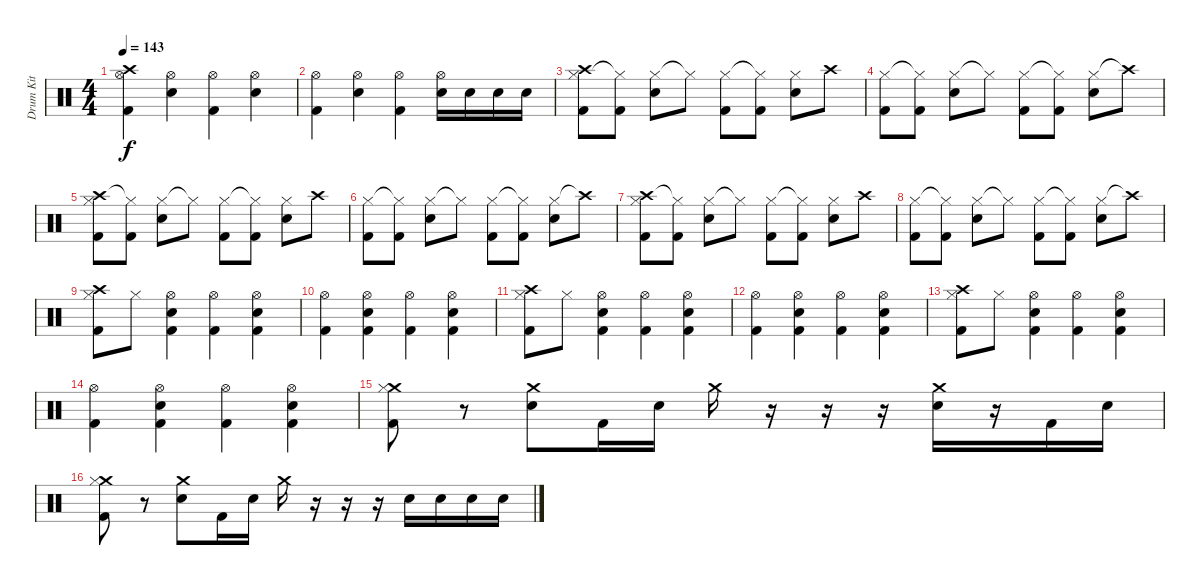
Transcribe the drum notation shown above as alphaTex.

\track ("Drum Kit" "Drum Kit") {instrument percussion}
\staff {score}
\articulation defaults
\ts (4 4)
\tempo 143
\clef neutral
\ks c
("Hi-Hat (open)" "Crash high (hit)" "Kick (hit) 2").4{dy f} ("Hi-Hat (open)" "Snare (hit) 2").4 ("Hi-Hat (open)" "Kick (hit) 2").4 ("Hi-Hat (open)" "Snare (hit) 2").4 |
("Hi-Hat (open)" "Kick (hit) 2").4 ("Hi-Hat (open)" "Snare (hit) 2").4 ("Hi-Hat (open)" "Kick (hit) 2").4 ("Hi-Hat (open)" "Snare (hit) 2").16 "Snare (hit) 2".16 "Snare (hit) 2".16 "Snare (hit) 2".16 |
("Hi-Hat (closed)" "Kick (hit) 2" "Crash high (hit)").8 ("Hi-Hat (closed)"{t} "Kick (hit) 2").8 ("Hi-Hat (closed)" "Snare (hit) 2").8 "Hi-Hat (closed)"{t}.8 ("Hi-Hat (closed)" "Kick (hit) 2").8 ("Hi-Hat (closed)"{t} "Kick (hit) 2").8 ("Hi-Hat (closed)" "Snare (hit) 2").8 "Crash high (hit)".8 |
("Hi-Hat (closed)" "Kick (hit) 2").8 ("Hi-Hat (closed)"{t} "Kick (hit) 2").8 ("Hi-Hat (closed)" "Snare (hit) 2").8 "Hi-Hat (closed)"{t}.8 ("Hi-Hat (closed)" "Kick (hit) 2").8 ("Hi-Hat (closed)"{t} "Kick (hit) 2").8 ("Hi-Hat (closed)" "Snare (hit) 2").8 "Crash high (hit)"{t}.8 |
("Crash high (hit)" "Hi-Hat (closed)" "Kick (hit) 2").8 ("Hi-Hat (closed)"{t} "Kick (hit) 2").8 ("Hi-Hat (closed)" "Snare (hit) 2").8 "Hi-Hat (closed)"{t}.8 ("Hi-Hat (closed)" "Kick (hit) 2").8 ("Hi-Hat (closed)"{t} "Kick (hit) 2").8 ("Hi-Hat (closed)" "Snare (hit) 2").8 "Crash high (hit)".8 |
("Hi-Hat (closed)" "Kick (hit) 2").8 ("Hi-Hat (closed)"{t} "Kick (hit) 2").8 ("Hi-Hat (closed)" "Snare (hit) 2").8 "Hi-Hat (closed)"{t}.8 ("Hi-Hat (closed)" "Kick (hit) 2").8 ("Hi-Hat (closed)"{t} "Kick (hit) 2").8 ("Hi-Hat (closed)" "Snare (hit) 2").8 "Crash high (hit)"{t}.8 |
("Crash high (hit)" "Hi-Hat (closed)" "Kick (hit) 2").8 ("Hi-Hat (closed)"{t} "Kick (hit) 2").8 ("Hi-Hat (closed)" "Snare (hit) 2").8 "Hi-Hat (closed)"{t}.8 ("Hi-Hat (closed)" "Kick (hit) 2").8 ("Hi-Hat (closed)"{t} "Kick (hit) 2").8 ("Hi-Hat (closed)" "Snare (hit) 2").8 "Crash high (hit)".8 |
("Hi-Hat (closed)" "Kick (hit) 2").8 ("Hi-Hat (closed)"{t} "Kick (hit) 2").8 ("Hi-Hat (closed)" "Snare (hit) 2").8 "Hi-Hat (closed)"{t}.8 ("Hi-Hat (closed)" "Kick (hit) 2").8 ("Hi-Hat (closed)"{t} "Kick (hit) 2").8 ("Hi-Hat (closed)" "Snare (hit) 2").8 "Crash high (hit)"{t}.8 |
("Crash high (hit)" "Hi-Hat (closed)" "Kick (hit) 2").8 "Hi-Hat (closed)".8 ("Snare (hit) 2" "Hi-Hat (open)" "Kick (hit) 2").4 ("Hi-Hat (open)" "Kick (hit) 2").4 ("Hi-Hat (open)" "Snare (hit) 2" "Kick (hit) 2").4 |
("Hi-Hat (open)" "Kick (hit) 2").4 ("Hi-Hat (open)" "Snare (hit) 2" "Kick (hit) 2").4 ("Hi-Hat (open)" "Kick (hit) 2").4 ("Hi-Hat (open)" "Snare (hit) 2" "Kick (hit) 2").4 |
("Crash high (hit)" "Hi-Hat (closed)" "Kick (hit) 2").8 "Hi-Hat (closed)".8 ("Snare (hit) 2" "Hi-Hat (open)" "Kick (hit) 2").4 ("Hi-Hat (open)" "Kick (hit) 2").4 ("Hi-Hat (open)" "Snare (hit) 2" "Kick (hit) 2").4 |
("Hi-Hat (open)" "Kick (hit) 2").4 ("Hi-Hat (open)" "Snare (hit) 2" "Kick (hit) 2").4 ("Hi-Hat (open)" "Kick (hit) 2").4 ("Hi-Hat (open)" "Snare (hit) 2" "Kick (hit) 2").4 |
("Crash high (hit)" "Hi-Hat (closed)" "Kick (hit) 2").8 "Hi-Hat (closed)".8 ("Snare (hit) 2" "Hi-Hat (open)" "Kick (hit) 2").4 ("Hi-Hat (open)" "Kick (hit) 2").4 ("Hi-Hat (open)" "Snare (hit) 2" "Kick (hit) 2").4 |
("Hi-Hat (open)" "Kick (hit) 2").4 ("Hi-Hat (open)" "Snare (hit) 2" "Kick (hit) 2").4 ("Hi-Hat (open)" "Kick (hit) 2").4 ("Hi-Hat (open)" "Snare (hit) 2" "Kick (hit) 2").4 |
("Crash medium (hit)" "Hi-Hat (closed)" "Kick (hit) 2").8 r.8 ("Crash medium (hit)" "Snare (hit) 2").8 "Kick (hit) 2".16 "Snare (hit) 2".16 "Crash medium (hit)".16 r.16 r.16 r.16 ("Crash medium (hit)" "Snare (hit) 2").16 r.16 "Kick (hit) 2".16 "Snare (hit) 2".16 |
("Crash medium (hit)" "Hi-Hat (closed)" "Kick (hit) 2").8 r.8 ("Crash medium (hit)" "Snare (hit) 2").8 "Kick (hit) 2".16 "Snare (hit) 2".16 "Crash medium (hit)".16 r.16 r.16 r.16 "Snare (hit) 2".16 "Snare (hit) 2".16 "Snare (hit) 2".16 "Snare (hit) 2".16
